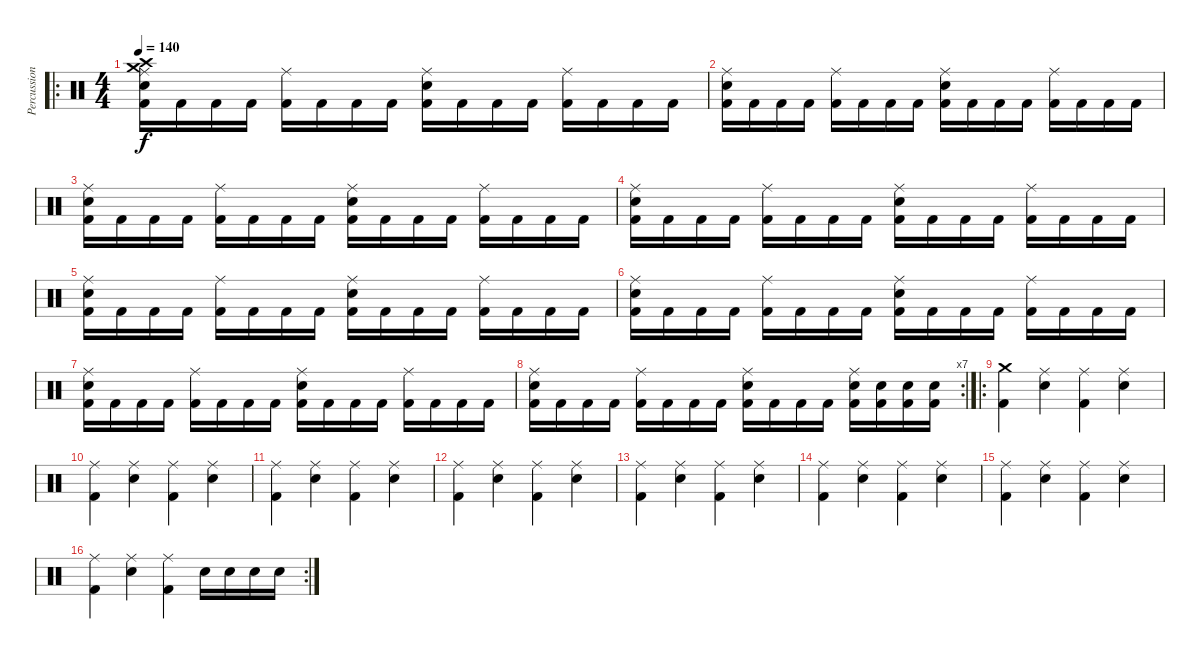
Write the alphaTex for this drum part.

\track ("Percussions" "Percussion") {instrument percussion}
\staff {score}
\articulation defaults
\ro
\ts (4 4)
\tempo 140
\clef neutral
\ks c
("Kick (hit) 2" "Snare (hit) 2" "Crash high (hit)" "Crash medium (hit)" "Ride (middle)").16{dy f} "Kick (hit) 2".16 "Kick (hit) 2".16 "Kick (hit) 2".16 ("Kick (hit) 2" "Ride (middle)").16 "Kick (hit) 2".16 "Kick (hit) 2".16 "Kick (hit) 2".16 ("Kick (hit) 2" "Snare (hit) 2" "Ride (middle)").16 "Kick (hit) 2".16 "Kick (hit) 2".16 "Kick (hit) 2".16 ("Kick (hit) 2" "Ride (middle)").16 "Kick (hit) 2".16 "Kick (hit) 2".16 "Kick (hit) 2".16 |
("Kick (hit) 2" "Snare (hit) 2" "Ride (middle)").16 "Kick (hit) 2".16 "Kick (hit) 2".16 "Kick (hit) 2".16 ("Kick (hit) 2" "Ride (middle)").16 "Kick (hit) 2".16 "Kick (hit) 2".16 "Kick (hit) 2".16 ("Kick (hit) 2" "Snare (hit) 2" "Ride (middle)").16 "Kick (hit) 2".16 "Kick (hit) 2".16 "Kick (hit) 2".16 ("Kick (hit) 2" "Ride (middle)").16 "Kick (hit) 2".16 "Kick (hit) 2".16 "Kick (hit) 2".16 |
("Kick (hit) 2" "Snare (hit) 2" "Ride (middle)").16 "Kick (hit) 2".16 "Kick (hit) 2".16 "Kick (hit) 2".16 ("Kick (hit) 2" "Ride (middle)").16 "Kick (hit) 2".16 "Kick (hit) 2".16 "Kick (hit) 2".16 ("Kick (hit) 2" "Snare (hit) 2" "Ride (middle)").16 "Kick (hit) 2".16 "Kick (hit) 2".16 "Kick (hit) 2".16 ("Kick (hit) 2" "Ride (middle)").16 "Kick (hit) 2".16 "Kick (hit) 2".16 "Kick (hit) 2".16 |
("Kick (hit) 2" "Snare (hit) 2" "Ride (middle)").16 "Kick (hit) 2".16 "Kick (hit) 2".16 "Kick (hit) 2".16 ("Kick (hit) 2" "Ride (middle)").16 "Kick (hit) 2".16 "Kick (hit) 2".16 "Kick (hit) 2".16 ("Kick (hit) 2" "Snare (hit) 2" "Ride (middle)").16 "Kick (hit) 2".16 "Kick (hit) 2".16 "Kick (hit) 2".16 ("Kick (hit) 2" "Ride (middle)").16 "Kick (hit) 2".16 "Kick (hit) 2".16 "Kick (hit) 2".16 |
("Kick (hit) 2" "Snare (hit) 2" "Ride (middle)").16 "Kick (hit) 2".16 "Kick (hit) 2".16 "Kick (hit) 2".16 ("Kick (hit) 2" "Ride (middle)").16 "Kick (hit) 2".16 "Kick (hit) 2".16 "Kick (hit) 2".16 ("Kick (hit) 2" "Snare (hit) 2" "Ride (middle)").16 "Kick (hit) 2".16 "Kick (hit) 2".16 "Kick (hit) 2".16 ("Kick (hit) 2" "Ride (middle)").16 "Kick (hit) 2".16 "Kick (hit) 2".16 "Kick (hit) 2".16 |
("Kick (hit) 2" "Snare (hit) 2" "Ride (middle)").16 "Kick (hit) 2".16 "Kick (hit) 2".16 "Kick (hit) 2".16 ("Kick (hit) 2" "Ride (middle)").16 "Kick (hit) 2".16 "Kick (hit) 2".16 "Kick (hit) 2".16 ("Kick (hit) 2" "Snare (hit) 2" "Ride (middle)").16 "Kick (hit) 2".16 "Kick (hit) 2".16 "Kick (hit) 2".16 ("Kick (hit) 2" "Ride (middle)").16 "Kick (hit) 2".16 "Kick (hit) 2".16 "Kick (hit) 2".16 |
("Kick (hit) 2" "Snare (hit) 2" "Ride (middle)").16 "Kick (hit) 2".16 "Kick (hit) 2".16 "Kick (hit) 2".16 ("Kick (hit) 2" "Ride (middle)").16 "Kick (hit) 2".16 "Kick (hit) 2".16 "Kick (hit) 2".16 ("Kick (hit) 2" "Snare (hit) 2" "Ride (middle)").16 "Kick (hit) 2".16 "Kick (hit) 2".16 "Kick (hit) 2".16 ("Kick (hit) 2" "Ride (middle)").16 "Kick (hit) 2".16 "Kick (hit) 2".16 "Kick (hit) 2".16 |
\rc 7
("Kick (hit) 2" "Snare (hit) 2" "Ride (middle)").16 "Kick (hit) 2".16 "Kick (hit) 2".16 "Kick (hit) 2".16 ("Kick (hit) 2" "Ride (middle)").16 "Kick (hit) 2".16 "Kick (hit) 2".16 "Kick (hit) 2".16 ("Kick (hit) 2" "Snare (hit) 2" "Ride (middle)").16 "Kick (hit) 2".16 "Kick (hit) 2".16 "Kick (hit) 2".16 ("Kick (hit) 2" "Snare (hit) 2" "Ride (middle)").16 ("Kick (hit) 2" "Snare (hit) 2").16 ("Kick (hit) 2" "Snare (hit) 2").16 ("Kick (hit) 2" "Snare (hit) 2").16 |
\ro
("Kick (hit) 2" "Crash medium (hit)").4 ("Snare (hit) 2" "Ride (middle)").4 ("Kick (hit) 2" "Ride (middle)").4 ("Snare (hit) 2" "Ride (middle)").4 |
("Kick (hit) 2" "Ride (middle)").4 ("Snare (hit) 2" "Ride (middle)").4 ("Kick (hit) 2" "Ride (middle)").4 ("Snare (hit) 2" "Ride (middle)").4 |
("Kick (hit) 2" "Ride (middle)").4 ("Snare (hit) 2" "Ride (middle)").4 ("Kick (hit) 2" "Ride (middle)").4 ("Snare (hit) 2" "Ride (middle)").4 |
("Kick (hit) 2" "Ride (middle)").4 ("Snare (hit) 2" "Ride (middle)").4 ("Kick (hit) 2" "Ride (middle)").4 ("Snare (hit) 2" "Ride (middle)").4 |
("Kick (hit) 2" "Ride (middle)").4 ("Snare (hit) 2" "Ride (middle)").4 ("Kick (hit) 2" "Ride (middle)").4 ("Snare (hit) 2" "Ride (middle)").4 |
("Kick (hit) 2" "Ride (middle)").4 ("Snare (hit) 2" "Ride (middle)").4 ("Kick (hit) 2" "Ride (middle)").4 ("Snare (hit) 2" "Ride (middle)").4 |
("Kick (hit) 2" "Ride (middle)").4 ("Snare (hit) 2" "Ride (middle)").4 ("Kick (hit) 2" "Ride (middle)").4 ("Snare (hit) 2" "Ride (middle)").4 |
\rc 2
("Kick (hit) 2" "Ride (middle)").4 ("Snare (hit) 2" "Ride (middle)").4 ("Kick (hit) 2" "Ride (middle)").4 "Snare (hit) 2".16 "Snare (hit) 2".16 "Snare (hit) 2".16 "Snare (hit) 2".16
